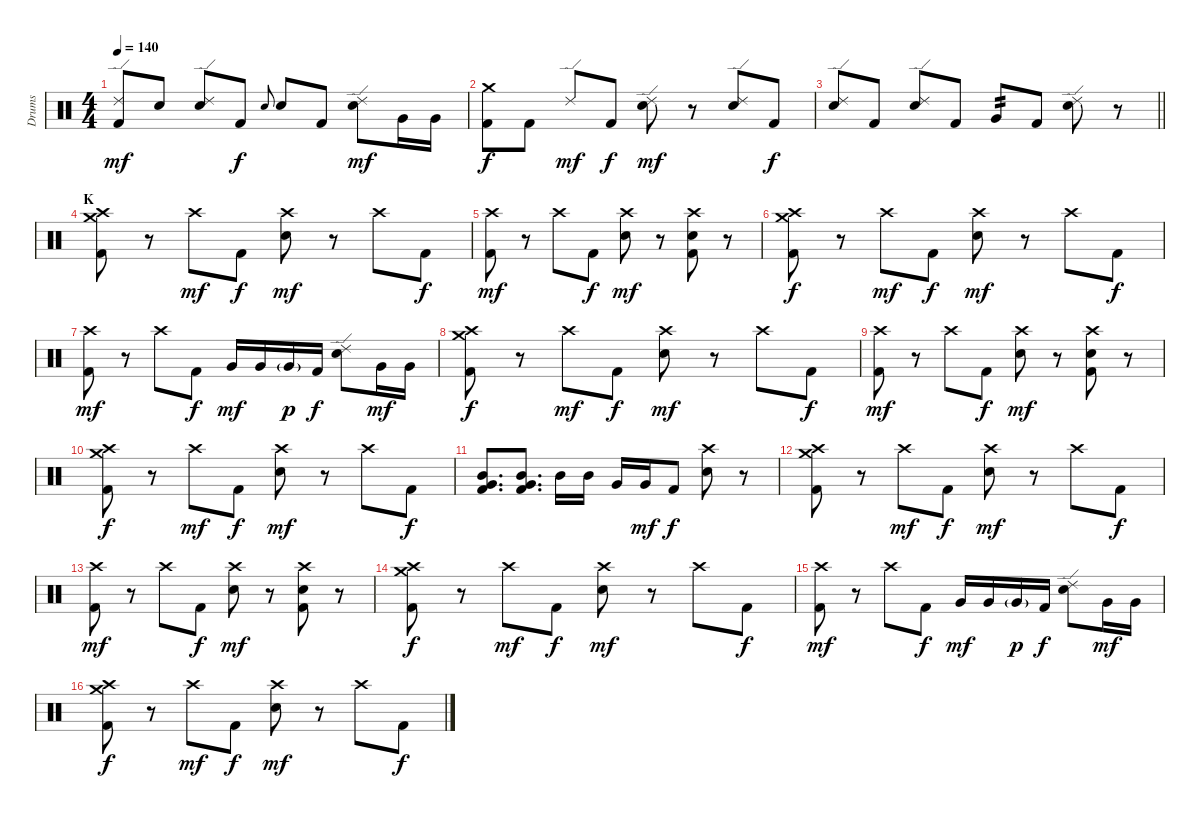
\track ("Drums" "Drums") {instrument percussion}
\staff {score}
\articulation defaults
\ts (4 4)
\tempo 140
\clef neutral
\ks c
("Ride (edge) 2" "Kick (hit) 2").8{dy mf} "Snare (hit) 2".8 ("Ride (edge) 2" "Snare (hit) 2").8 "Kick (hit) 2".8{dy f} "Snare (hit) 2".8{gr onbeat} "Snare (hit) 2".8 "Kick (hit) 2".8 ("Ride (edge) 2" "Snare (hit) 2").8{dy mf} "Very Low Tom (hit)".16 "Very Low Tom (hit)".16 |
("Crash medium (hit)" "Kick (hit) 2").8{dy f} "Kick (hit) 2".8 "Ride (edge) 2".8{dy mf} "Kick (hit) 2".8{dy f} ("Ride (edge) 2" "Snare (hit) 2").8{dy mf} r.8 ("Ride (edge) 2" "Snare (hit) 2").8 "Kick (hit) 2".8{dy f} |
\barLineRight lightlight
("Ride (edge) 2" "Snare (hit) 2").8 "Kick (hit) 2".8 ("Ride (edge) 2" "Snare (hit) 2").8 "Kick (hit) 2".8 "Very Low Tom (hit)".8{tp 2} "Kick (hit) 2".8 ("Ride (edge) 2" "Snare (hit) 2").8 r.8 |
\section ("" "K")
("Crash high (hit)" "Crash medium (hit)" "Kick (hit) 2").8 r.8 "Crash high (hit)".8{dy mf} "Kick (hit) 2".8{dy f} ("Crash high (hit)" "Snare (hit) 2").8{dy mf} r.8 "Crash high (hit)".8 "Kick (hit) 2".8{dy f} |
("Crash high (hit)" "Kick (hit) 2").8{dy mf} r.8 "Crash high (hit)".8 "Kick (hit) 2".8{dy f} ("Crash high (hit)" "Snare (hit) 2").8{dy mf} r.8 ("Crash high (hit)" "Snare (hit) 2" "Kick (hit) 2").8 r.8 |
("Crash high (hit)" "Crash medium (hit)" "Kick (hit) 2").8{dy f} r.8 "Crash high (hit)".8{dy mf} "Kick (hit) 2".8{dy f} ("Crash high (hit)" "Snare (hit) 2").8{dy mf} r.8 "Crash high (hit)".8 "Kick (hit) 2".8{dy f} |
("Crash high (hit)" "Kick (hit) 2").8{dy mf} r.8 "Crash high (hit)".8 "Kick (hit) 2".8{dy f} "Very Low Tom (hit)".16{dy mf} "Very Low Tom (hit)".16 "Very Low Tom (hit)"{g}.16{dy p} "Kick (hit) 2".16{dy f} ("Ride (edge) 2" "Snare (hit) 2").8 "Very Low Tom (hit)".16{dy mf} "Very Low Tom (hit)".16 |
("Crash high (hit)" "Crash medium (hit)" "Kick (hit) 2").8{dy f} r.8 "Crash high (hit)".8{dy mf} "Kick (hit) 2".8{dy f} ("Crash high (hit)" "Snare (hit) 2").8{dy mf} r.8 "Crash high (hit)".8 "Kick (hit) 2".8{dy f} |
("Crash high (hit)" "Kick (hit) 2").8{dy mf} r.8 "Crash high (hit)".8 "Kick (hit) 2".8{dy f} ("Crash high (hit)" "Snare (hit) 2").8{dy mf} r.8 ("Crash high (hit)" "Snare (hit) 2" "Kick (hit) 2").8 r.8 |
("Crash high (hit)" "Crash medium (hit)" "Kick (hit) 2").8{dy f} r.8 "Crash high (hit)".8{dy mf} "Kick (hit) 2".8{dy f} ("Crash high (hit)" "Snare (hit) 2").8{dy mf} r.8 "Crash high (hit)".8 "Kick (hit) 2".8{dy f} |
("Mid Tom (hit)" "Very Low Tom (hit)" "Kick (hit) 2").8{d bu 60} ("Mid Tom (hit)" "Very Low Tom (hit)" "Kick (hit) 2").8{d bu 60} "Mid Tom (hit)".16 "Mid Tom (hit)".16 "Very Low Tom (hit)".16 "Very Low Tom (hit)".16{dy mf} "Kick (hit) 2".8{dy f} ("Crash high (hit)" "Snare (hit) 2").8 r.8 |
("Crash high (hit)" "Crash medium (hit)" "Kick (hit) 2").8 r.8 "Crash high (hit)".8{dy mf} "Kick (hit) 2".8{dy f} ("Crash high (hit)" "Snare (hit) 2").8{dy mf} r.8 "Crash high (hit)".8 "Kick (hit) 2".8{dy f} |
("Crash high (hit)" "Kick (hit) 2").8{dy mf} r.8 "Crash high (hit)".8 "Kick (hit) 2".8{dy f} ("Crash high (hit)" "Snare (hit) 2").8{dy mf} r.8 ("Crash high (hit)" "Snare (hit) 2" "Kick (hit) 2").8 r.8 |
("Crash high (hit)" "Crash medium (hit)" "Kick (hit) 2").8{dy f} r.8 "Crash high (hit)".8{dy mf} "Kick (hit) 2".8{dy f} ("Crash high (hit)" "Snare (hit) 2").8{dy mf} r.8 "Crash high (hit)".8 "Kick (hit) 2".8{dy f} |
("Crash high (hit)" "Kick (hit) 2").8{dy mf} r.8 "Crash high (hit)".8 "Kick (hit) 2".8{dy f} "Very Low Tom (hit)".16{dy mf} "Very Low Tom (hit)".16 "Very Low Tom (hit)"{g}.16{dy p} "Kick (hit) 2".16{dy f} ("Ride (edge) 2" "Snare (hit) 2").8 "Very Low Tom (hit)".16{dy mf} "Very Low Tom (hit)".16 |
("Crash high (hit)" "Crash medium (hit)" "Kick (hit) 2").8{dy f} r.8 "Crash high (hit)".8{dy mf} "Kick (hit) 2".8{dy f} ("Crash high (hit)" "Snare (hit) 2").8{dy mf} r.8 "Crash high (hit)".8 "Kick (hit) 2".8{dy f}
